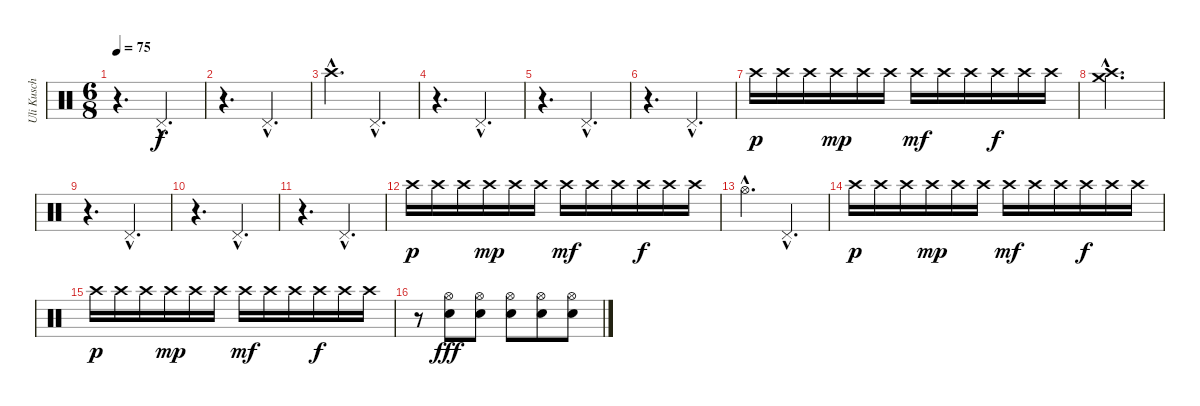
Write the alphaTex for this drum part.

\track ("Uli Kusch" "Uli Kusch") {instrument percussion}
\staff {score}
\articulation defaults
\ts (6 8)
\tempo 75
\clef neutral
\ks c
r.4{d dy f} "Pedal Hi-Hat (hit)"{hac}.4{d} |
r.4{d} "Pedal Hi-Hat (hit)"{hac}.4{d} |
"Crash high (hit)"{hac}.4{d} "Pedal Hi-Hat (hit)"{hac}.4{d} |
r.4{d} "Pedal Hi-Hat (hit)"{hac}.4{d} |
r.4{d} "Pedal Hi-Hat (hit)"{hac}.4{d} |
r.4{d} "Pedal Hi-Hat (hit)"{hac}.4{d} |
"Crash high (hit)".16{dy p} "Crash high (hit)".16 "Crash high (hit)".16 "Crash high (hit)".16{dy mp} "Crash high (hit)".16 "Crash high (hit)".16 "Crash high (hit)".16{dy mf} "Crash high (hit)".16 "Crash high (hit)".16 "Crash high (hit)".16{dy f} "Crash high (hit)".16 "Crash high (hit)".16 |
("Crash medium (hit)"{hac} "Crash high (hit)"{hac}).2{d} |
r.4{d} "Pedal Hi-Hat (hit)"{hac}.4{d} |
r.4{d} "Pedal Hi-Hat (hit)"{hac}.4{d} |
r.4{d} "Pedal Hi-Hat (hit)"{hac}.4{d} |
"Crash high (hit)".16{dy p} "Crash high (hit)".16 "Crash high (hit)".16 "Crash high (hit)".16{dy mp} "Crash high (hit)".16 "Crash high (hit)".16 "Crash high (hit)".16{dy mf} "Crash high (hit)".16 "Crash high (hit)".16 "Crash high (hit)".16{dy f} "Crash high (hit)".16 "Crash high (hit)".16 |
"Hi-Hat (open)"{hac}.4{d} "Pedal Hi-Hat (hit)"{hac}.4{d} |
"Crash high (hit)".16{dy p} "Crash high (hit)".16 "Crash high (hit)".16 "Crash high (hit)".16{dy mp} "Crash high (hit)".16 "Crash high (hit)".16 "Crash high (hit)".16{dy mf} "Crash high (hit)".16 "Crash high (hit)".16 "Crash high (hit)".16{dy f} "Crash high (hit)".16 "Crash high (hit)".16 |
"Crash high (hit)".16{dy p} "Crash high (hit)".16 "Crash high (hit)".16 "Crash high (hit)".16{dy mp} "Crash high (hit)".16 "Crash high (hit)".16 "Crash high (hit)".16{dy mf} "Crash high (hit)".16 "Crash high (hit)".16 "Crash high (hit)".16{dy f} "Crash high (hit)".16 "Crash high (hit)".16 |
r.8 ("Hi-Hat (open)" "Electric Snare (hit)").8{dy fff} ("Hi-Hat (open)" "Electric Snare (hit)").8 ("Hi-Hat (open)" "Electric Snare (hit)").8 ("Hi-Hat (open)" "Electric Snare (hit)").8 ("Hi-Hat (open)" "Electric Snare (hit)").8
